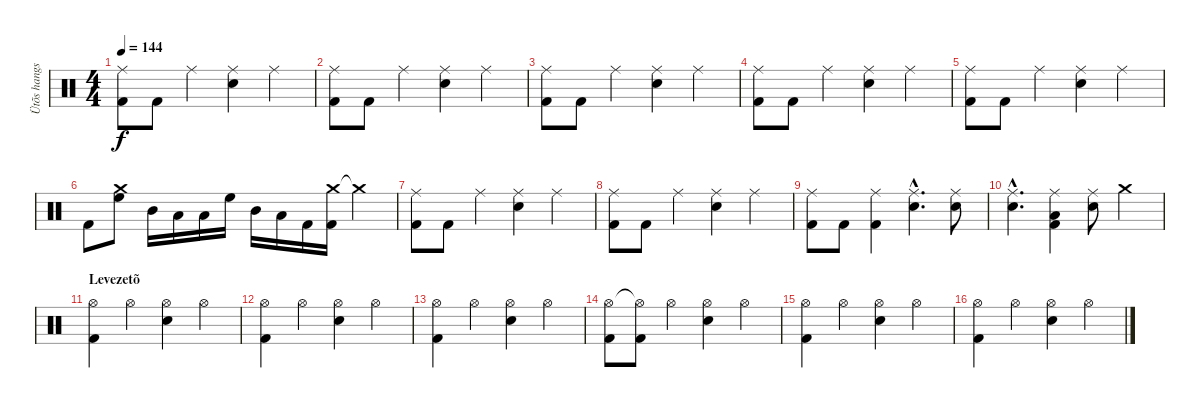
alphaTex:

\track ("Ütõs hangszer" "Ütõs hangs") {instrument percussion}
\staff {score}
\articulation defaults
\ts (4 4)
\tempo 144
\clef neutral
\ks c
("Ride (middle)" "Kick (hit) 2").8{dy f} "Kick (hit) 2".8 "Ride (middle)".4 ("Ride (middle)" "Snare (hit) 2").4 "Ride (middle)".4 |
("Ride (middle)" "Kick (hit) 2").8 "Kick (hit) 2".8 "Ride (middle)".4 ("Ride (middle)" "Snare (hit) 2").4 "Ride (middle)".4 |
("Ride (middle)" "Kick (hit) 2").8 "Kick (hit) 2".8 "Ride (middle)".4 ("Ride (middle)" "Snare (hit) 2").4 "Ride (middle)".4 |
("Ride (middle)" "Kick (hit) 2").8 "Kick (hit) 2".8 "Ride (middle)".4 ("Ride (middle)" "Snare (hit) 2").4 "Ride (middle)".4 |
("Ride (middle)" "Kick (hit) 2").8 "Kick (hit) 2".8 "Ride (middle)".4 ("Ride (middle)" "Snare (hit) 2").4 "Ride (middle)".4 |
"Kick (hit) 2".8 ("Crash medium (hit)" "High Floor Tom (hit)").8 "Mid Tom (hit)".16 "Low Tom (hit)".16 "Low Floor Tom (hit)".16 "High Floor Tom (hit)".16 "Mid Tom (hit)".16 "Low Tom (hit)".16 "Kick (hit) 2".16 ("Crash medium (hit)" "Kick (hit) 2").16 "Crash medium (hit)"{t}.4 |
("Ride (middle)" "Kick (hit) 2").8 "Kick (hit) 2".8 "Ride (middle)".4 ("Ride (middle)" "Snare (hit) 2").4 "Ride (middle)".4 |
("Ride (middle)" "Kick (hit) 2").8 "Kick (hit) 2".8 "Ride (middle)".4 ("Ride (middle)" "Snare (hit) 2").4 "Ride (middle)".4 |
("Ride (middle)" "Kick (hit) 2").8 "Kick (hit) 2".8 ("Ride (middle)" "Kick (hit) 2").4 ("Ride (middle)"{hac} "Snare (hit) 2"{hac}).4{d} ("Ride (middle)" "Snare (hit) 2").8 |
("Ride (middle)"{hac} "Snare (hit) 2"{hac}).4{d} ("Ride (middle)" "Low Floor Tom (hit)" "Kick (hit) 2").4 ("Ride (middle)" "Snare (hit) 2").8 "Crash medium (hit)".4 |
\section ("" "Levezetõ")
("Hi-Hat (open)" "Kick (hit) 2").4 "Hi-Hat (open)".4 ("Hi-Hat (open)" "Snare (hit) 2").4 "Hi-Hat (open)".4 |
("Hi-Hat (open)" "Kick (hit) 2").4 "Hi-Hat (open)".4 ("Hi-Hat (open)" "Snare (hit) 2").4 "Hi-Hat (open)".4 |
("Hi-Hat (open)" "Kick (hit) 2").4 "Hi-Hat (open)".4 ("Hi-Hat (open)" "Snare (hit) 2").4 "Hi-Hat (open)".4 |
("Hi-Hat (open)" "Kick (hit) 2").8 ("Hi-Hat (open)"{t} "Kick (hit) 2").8 "Hi-Hat (open)".4 ("Hi-Hat (open)" "Snare (hit) 2").4 "Hi-Hat (open)".4 |
("Hi-Hat (open)" "Kick (hit) 2").4 "Hi-Hat (open)".4 ("Hi-Hat (open)" "Snare (hit) 2").4 "Hi-Hat (open)".4 |
("Hi-Hat (open)" "Kick (hit) 2").4 "Hi-Hat (open)".4 ("Hi-Hat (open)" "Snare (hit) 2").4 "Hi-Hat (open)".4
